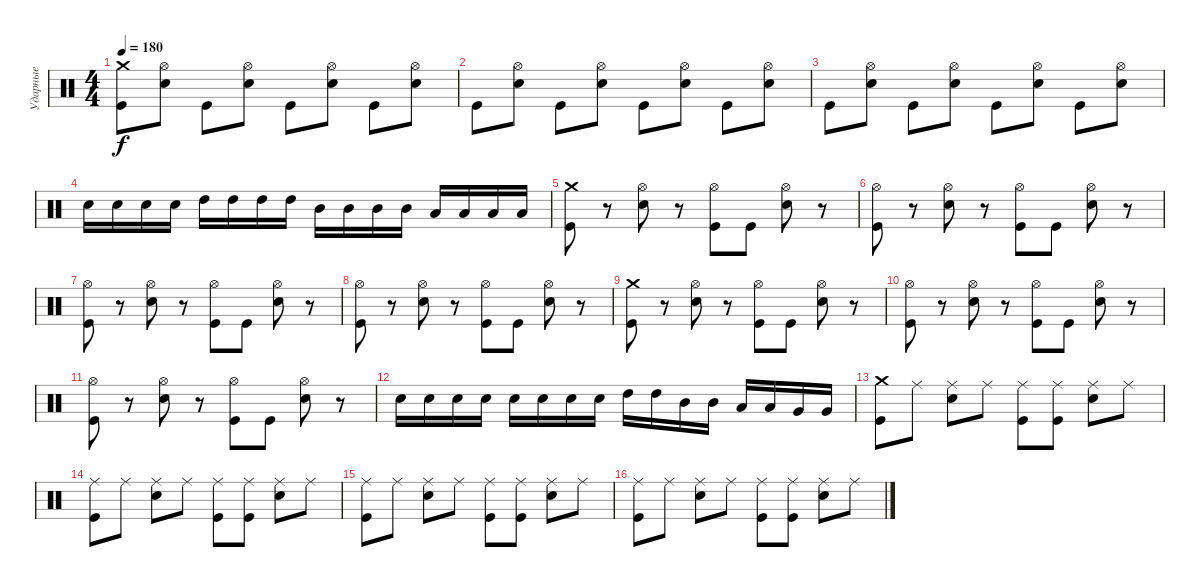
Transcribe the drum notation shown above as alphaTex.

\track ("Ударные" "Ударные") {instrument percussion}
\staff {score}
\articulation defaults
\ts (4 4)
\tempo 180
\clef neutral
\ks c
("Crash medium (hit)" "Kick (hit)").8{dy f} ("Hi-Hat (open)" "Electric Snare (hit)").8 "Kick (hit)".8 ("Hi-Hat (open)" "Electric Snare (hit)").8 "Kick (hit)".8 ("Hi-Hat (open)" "Electric Snare (hit)").8 "Kick (hit)".8 ("Hi-Hat (open)" "Electric Snare (hit)").8 |
"Kick (hit)".8 ("Hi-Hat (open)" "Electric Snare (hit)").8 "Kick (hit)".8 ("Hi-Hat (open)" "Electric Snare (hit)").8 "Kick (hit)".8 ("Hi-Hat (open)" "Electric Snare (hit)").8 "Kick (hit)".8 ("Hi-Hat (open)" "Electric Snare (hit)").8 |
"Kick (hit)".8 ("Hi-Hat (open)" "Electric Snare (hit)").8 "Kick (hit)".8 ("Hi-Hat (open)" "Electric Snare (hit)").8 "Kick (hit)".8 ("Hi-Hat (open)" "Electric Snare (hit)").8 "Kick (hit)".8 ("Hi-Hat (open)" "Electric Snare (hit)").8 |
"Electric Snare (hit)".16 "Electric Snare (hit)".16 "Electric Snare (hit)".16 "Electric Snare (hit)".16 "High Tom (hit)".16 "High Tom (hit)".16 "High Tom (hit)".16 "High Tom (hit)".16 "Mid Tom (hit)".16 "Mid Tom (hit)".16 "Mid Tom (hit)".16 "Mid Tom (hit)".16 "Low Tom (hit)".16 "Low Tom (hit)".16 "Low Tom (hit)".16 "Low Tom (hit)".16 |
("Crash medium (hit)" "Kick (hit)").8 r.8 ("Hi-Hat (open)" "Electric Snare (hit)").8 r.8 ("Hi-Hat (open)" "Kick (hit)").8 "Kick (hit)".8 ("Hi-Hat (open)" "Electric Snare (hit)").8 r.8 |
("Hi-Hat (open)" "Kick (hit)").8 r.8 ("Hi-Hat (open)" "Electric Snare (hit)").8 r.8 ("Hi-Hat (open)" "Kick (hit)").8 "Kick (hit)".8 ("Hi-Hat (open)" "Electric Snare (hit)").8 r.8 |
("Hi-Hat (open)" "Kick (hit)").8 r.8 ("Hi-Hat (open)" "Electric Snare (hit)").8 r.8 ("Hi-Hat (open)" "Kick (hit)").8 "Kick (hit)".8 ("Hi-Hat (open)" "Electric Snare (hit)").8 r.8 |
("Hi-Hat (open)" "Kick (hit)").8 r.8 ("Hi-Hat (open)" "Electric Snare (hit)").8 r.8 ("Hi-Hat (open)" "Kick (hit)").8 "Kick (hit)".8 ("Hi-Hat (open)" "Electric Snare (hit)").8 r.8 |
("Crash medium (hit)" "Kick (hit)").8 r.8 ("Hi-Hat (open)" "Electric Snare (hit)").8 r.8 ("Hi-Hat (open)" "Kick (hit)").8 "Kick (hit)".8 ("Hi-Hat (open)" "Electric Snare (hit)").8 r.8 |
("Hi-Hat (open)" "Kick (hit)").8 r.8 ("Hi-Hat (open)" "Electric Snare (hit)").8 r.8 ("Hi-Hat (open)" "Kick (hit)").8 "Kick (hit)".8 ("Hi-Hat (open)" "Electric Snare (hit)").8 r.8 |
("Hi-Hat (open)" "Kick (hit)").8 r.8 ("Hi-Hat (open)" "Electric Snare (hit)").8 r.8 ("Hi-Hat (open)" "Kick (hit)").8 "Kick (hit)".8 ("Hi-Hat (open)" "Electric Snare (hit)").8 r.8 |
"Electric Snare (hit)".16 "Electric Snare (hit)".16 "Electric Snare (hit)".16 "Electric Snare (hit)".16 "Electric Snare (hit)".16 "Electric Snare (hit)".16 "Electric Snare (hit)".16 "Electric Snare (hit)".16 "High Tom (hit)".16 "High Tom (hit)".16 "Mid Tom (hit)".16 "Mid Tom (hit)".16 "Low Tom (hit)".16 "Low Tom (hit)".16 "Very Low Tom (hit)".16 "Very Low Tom (hit)".16 |
("Crash medium (hit)" "Kick (hit)").8 "Ride (middle)".8 ("Ride (middle)" "Electric Snare (hit)").8 "Ride (middle)".8 ("Ride (middle)" "Kick (hit)").8 ("Ride (middle)" "Kick (hit)").8 ("Ride (middle)" "Electric Snare (hit)").8 "Ride (middle)".8 |
("Ride (middle)" "Kick (hit)").8 "Ride (middle)".8 ("Ride (middle)" "Electric Snare (hit)").8 "Ride (middle)".8 ("Ride (middle)" "Kick (hit)").8 ("Ride (middle)" "Kick (hit)").8 ("Ride (middle)" "Electric Snare (hit)").8 "Ride (middle)".8 |
("Ride (middle)" "Kick (hit)").8 "Ride (middle)".8 ("Ride (middle)" "Electric Snare (hit)").8 "Ride (middle)".8 ("Ride (middle)" "Kick (hit)").8 ("Ride (middle)" "Kick (hit)").8 ("Ride (middle)" "Electric Snare (hit)").8 "Ride (middle)".8 |
("Ride (middle)" "Kick (hit)").8 "Ride (middle)".8 ("Ride (middle)" "Electric Snare (hit)").8 "Ride (middle)".8 ("Ride (middle)" "Kick (hit)").8 ("Ride (middle)" "Kick (hit)").8 ("Ride (middle)" "Electric Snare (hit)").8 "Ride (middle)".8
